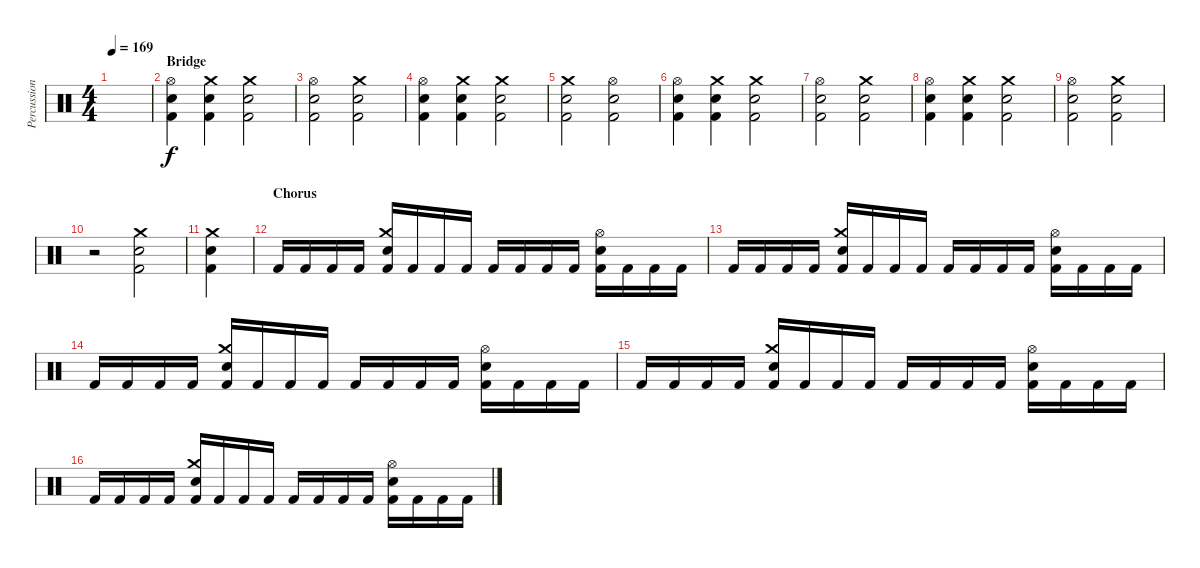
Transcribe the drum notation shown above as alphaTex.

\track ("Percussion" "Percussion") {instrument percussion}
\staff {score}
\articulation defaults
\ts (4 4)
\tempo 169
\clef neutral
\ks c
|
\section ("" "Bridge")
("Hi-Hat (open)" "Snare (hit) 2" "Kick (hit) 2").4 ("Crash medium (hit)" "Snare (hit) 2" "Kick (hit) 2").4 ("Crash medium (hit)" "Snare (hit) 2" "Kick (hit) 2").2 |
("Hi-Hat (open)" "Snare (hit) 2" "Kick (hit) 2").2 ("Crash medium (hit)" "Snare (hit) 2" "Kick (hit) 2").2 |
("Hi-Hat (open)" "Snare (hit) 2" "Kick (hit) 2").4 ("Crash medium (hit)" "Snare (hit) 2" "Kick (hit) 2").4 ("Crash medium (hit)" "Snare (hit) 2" "Kick (hit) 2").2 |
("Crash medium (hit)" "Snare (hit) 2" "Kick (hit) 2").2 ("Hi-Hat (open)" "Snare (hit) 2" "Kick (hit) 2").2 |
("Hi-Hat (open)" "Snare (hit) 2" "Kick (hit) 2").4 ("Crash medium (hit)" "Snare (hit) 2" "Kick (hit) 2").4 ("Crash medium (hit)" "Snare (hit) 2" "Kick (hit) 2").2 |
("Hi-Hat (open)" "Snare (hit) 2" "Kick (hit) 2").2 ("Crash medium (hit)" "Snare (hit) 2" "Kick (hit) 2").2 |
("Hi-Hat (open)" "Snare (hit) 2" "Kick (hit) 2").4 ("Crash medium (hit)" "Snare (hit) 2" "Kick (hit) 2").4 ("Crash medium (hit)" "Snare (hit) 2" "Kick (hit) 2").2 |
("Hi-Hat (open)" "Snare (hit) 2" "Kick (hit) 2").2 ("Crash medium (hit)" "Snare (hit) 2" "Kick (hit) 2").2 |
r.2 ("Crash medium (hit)" "Snare (hit) 2" "Kick (hit) 2").2 |
("Crash medium (hit)" "Snare (hit) 2" "Kick (hit) 2").4 |
\section ("" "Chorus")
"Kick (hit) 2".16 "Kick (hit) 2".16 "Kick (hit) 2".16 "Kick (hit) 2".16 ("Crash medium (hit)" "Electric Snare (hit)" "Kick (hit) 2").16 "Kick (hit) 2".16 "Kick (hit) 2".16 "Kick (hit) 2".16 "Kick (hit) 2".16 "Kick (hit) 2".16 "Kick (hit) 2".16 "Kick (hit) 2".16 ("Hi-Hat (open)" "Snare (hit) 2" "Kick (hit) 2").16 "Kick (hit) 2".16 "Kick (hit) 2".16 "Kick (hit) 2".16 |
"Kick (hit) 2".16 "Kick (hit) 2".16 "Kick (hit) 2".16 "Kick (hit) 2".16 ("Crash medium (hit)" "Electric Snare (hit)" "Kick (hit) 2").16 "Kick (hit) 2".16 "Kick (hit) 2".16 "Kick (hit) 2".16 "Kick (hit) 2".16 "Kick (hit) 2".16 "Kick (hit) 2".16 "Kick (hit) 2".16 ("Hi-Hat (open)" "Snare (hit) 2" "Kick (hit) 2").16 "Kick (hit) 2".16 "Kick (hit) 2".16 "Kick (hit) 2".16 |
"Kick (hit) 2".16 "Kick (hit) 2".16 "Kick (hit) 2".16 "Kick (hit) 2".16 ("Crash medium (hit)" "Electric Snare (hit)" "Kick (hit) 2").16 "Kick (hit) 2".16 "Kick (hit) 2".16 "Kick (hit) 2".16 "Kick (hit) 2".16 "Kick (hit) 2".16 "Kick (hit) 2".16 "Kick (hit) 2".16 ("Hi-Hat (open)" "Snare (hit) 2" "Kick (hit) 2").16 "Kick (hit) 2".16 "Kick (hit) 2".16 "Kick (hit) 2".16 |
"Kick (hit) 2".16 "Kick (hit) 2".16 "Kick (hit) 2".16 "Kick (hit) 2".16 ("Crash medium (hit)" "Electric Snare (hit)" "Kick (hit) 2").16 "Kick (hit) 2".16 "Kick (hit) 2".16 "Kick (hit) 2".16 "Kick (hit) 2".16 "Kick (hit) 2".16 "Kick (hit) 2".16 "Kick (hit) 2".16 ("Hi-Hat (open)" "Snare (hit) 2" "Kick (hit) 2").16 "Kick (hit) 2".16 "Kick (hit) 2".16 "Kick (hit) 2".16 |
"Kick (hit) 2".16 "Kick (hit) 2".16 "Kick (hit) 2".16 "Kick (hit) 2".16 ("Crash medium (hit)" "Electric Snare (hit)" "Kick (hit) 2").16 "Kick (hit) 2".16 "Kick (hit) 2".16 "Kick (hit) 2".16 "Kick (hit) 2".16 "Kick (hit) 2".16 "Kick (hit) 2".16 "Kick (hit) 2".16 ("Hi-Hat (open)" "Snare (hit) 2" "Kick (hit) 2").16 "Kick (hit) 2".16 "Kick (hit) 2".16 "Kick (hit) 2".16
